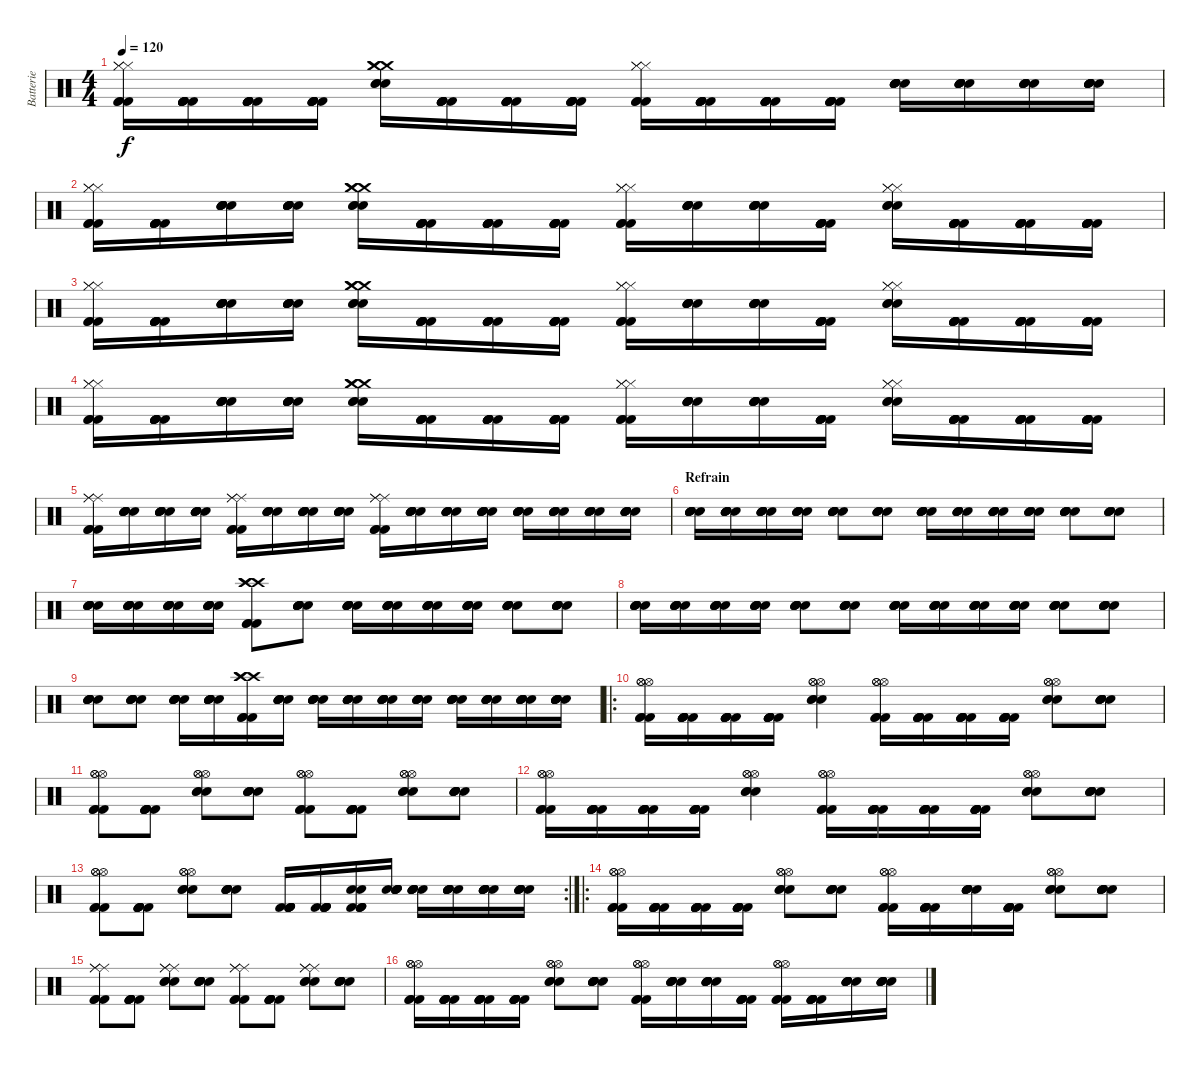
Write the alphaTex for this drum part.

\track ("Batterie" "Batterie") {instrument percussion}
\staff {score}
\articulation defaults
\ts (4 4)
\tempo 120
\clef neutral
\ks c
("Hi-Hat (closed)" "Hi-Hat (closed)" "Hi-Hat (closed)" "Kick (hit) 2" "Kick (hit) 2" "Kick (hit) 2").16{dy f} ("Kick (hit) 2" "Kick (hit) 2" "Kick (hit) 2" "Kick (hit) 2" "Kick (hit) 2" "Kick (hit) 2").16 ("Kick (hit) 2" "Kick (hit) 2" "Kick (hit) 2" "Kick (hit) 2" "Kick (hit) 2" "Kick (hit) 2").16 ("Kick (hit) 2" "Kick (hit) 2" "Kick (hit) 2" "Kick (hit) 2" "Kick (hit) 2" "Kick (hit) 2").16 ("Crash medium (hit)" "Crash medium (hit)" "Crash medium (hit)" "Snare (hit) 2" "Snare (hit) 2" "Snare (hit) 2").16 ("Kick (hit) 2" "Kick (hit) 2" "Kick (hit) 2" "Kick (hit) 2" "Kick (hit) 2" "Kick (hit) 2").16 ("Kick (hit) 2" "Kick (hit) 2" "Kick (hit) 2" "Kick (hit) 2" "Kick (hit) 2" "Kick (hit) 2").16 ("Kick (hit) 2" "Kick (hit) 2" "Kick (hit) 2" "Kick (hit) 2" "Kick (hit) 2" "Kick (hit) 2").16 ("Kick (hit) 2" "Hi-Hat (closed)" "Hi-Hat (closed)" "Hi-Hat (closed)" "Kick (hit) 2" "Kick (hit) 2").16 ("Kick (hit) 2" "Kick (hit) 2" "Kick (hit) 2" "Kick (hit) 2" "Kick (hit) 2" "Kick (hit) 2").16 ("Kick (hit) 2" "Kick (hit) 2" "Kick (hit) 2" "Kick (hit) 2" "Kick (hit) 2" "Kick (hit) 2").16 ("Kick (hit) 2" "Kick (hit) 2" "Kick (hit) 2" "Kick (hit) 2" "Kick (hit) 2" "Kick (hit) 2").16 ("Snare (hit) 2" "Snare (hit) 2" "Snare (hit) 2" "Snare (hit) 2" "Snare (hit) 2" "Snare (hit) 2").16 ("Snare (hit) 2" "Snare (hit) 2" "Snare (hit) 2" "Snare (hit) 2" "Snare (hit) 2" "Snare (hit) 2").16 ("Snare (hit) 2" "Snare (hit) 2" "Snare (hit) 2" "Snare (hit) 2" "Snare (hit) 2" "Snare (hit) 2").16 ("Snare (hit) 2" "Snare (hit) 2" "Snare (hit) 2" "Snare (hit) 2" "Snare (hit) 2" "Snare (hit) 2").16 |
("Hi-Hat (closed)" "Hi-Hat (closed)" "Hi-Hat (closed)" "Kick (hit) 2" "Kick (hit) 2" "Kick (hit) 2").16 ("Kick (hit) 2" "Kick (hit) 2" "Kick (hit) 2" "Kick (hit) 2" "Kick (hit) 2" "Kick (hit) 2").16 ("Snare (hit) 2" "Snare (hit) 2" "Snare (hit) 2" "Snare (hit) 2" "Snare (hit) 2" "Snare (hit) 2").16 ("Snare (hit) 2" "Snare (hit) 2" "Snare (hit) 2" "Snare (hit) 2" "Snare (hit) 2" "Snare (hit) 2").16 ("Crash medium (hit)" "Crash medium (hit)" "Crash medium (hit)" "Snare (hit) 2" "Snare (hit) 2" "Snare (hit) 2").16 ("Kick (hit) 2" "Kick (hit) 2" "Kick (hit) 2" "Kick (hit) 2" "Kick (hit) 2" "Kick (hit) 2").16 ("Kick (hit) 2" "Kick (hit) 2" "Kick (hit) 2" "Kick (hit) 2" "Kick (hit) 2" "Kick (hit) 2").16 ("Kick (hit) 2" "Kick (hit) 2" "Kick (hit) 2" "Kick (hit) 2" "Kick (hit) 2" "Kick (hit) 2").16 ("Kick (hit) 2" "Hi-Hat (closed)" "Hi-Hat (closed)" "Hi-Hat (closed)" "Kick (hit) 2" "Kick (hit) 2").16 ("Snare (hit) 2" "Snare (hit) 2" "Snare (hit) 2" "Snare (hit) 2" "Snare (hit) 2" "Snare (hit) 2").16 ("Snare (hit) 2" "Snare (hit) 2" "Snare (hit) 2" "Snare (hit) 2" "Snare (hit) 2" "Snare (hit) 2").16 ("Kick (hit) 2" "Kick (hit) 2" "Kick (hit) 2" "Kick (hit) 2" "Kick (hit) 2" "Kick (hit) 2").16 ("Snare (hit) 2" "Snare (hit) 2" "Snare (hit) 2" "Hi-Hat (closed)" "Hi-Hat (closed)" "Hi-Hat (closed)").16 ("Kick (hit) 2" "Kick (hit) 2" "Kick (hit) 2" "Kick (hit) 2" "Kick (hit) 2" "Kick (hit) 2").16 ("Kick (hit) 2" "Kick (hit) 2" "Kick (hit) 2" "Kick (hit) 2" "Kick (hit) 2" "Kick (hit) 2").16 ("Kick (hit) 2" "Kick (hit) 2" "Kick (hit) 2" "Kick (hit) 2" "Kick (hit) 2" "Kick (hit) 2").16 |
("Hi-Hat (closed)" "Hi-Hat (closed)" "Hi-Hat (closed)" "Kick (hit) 2" "Kick (hit) 2" "Kick (hit) 2").16 ("Kick (hit) 2" "Kick (hit) 2" "Kick (hit) 2" "Kick (hit) 2" "Kick (hit) 2" "Kick (hit) 2").16 ("Snare (hit) 2" "Snare (hit) 2" "Snare (hit) 2" "Snare (hit) 2" "Snare (hit) 2" "Snare (hit) 2").16 ("Snare (hit) 2" "Snare (hit) 2" "Snare (hit) 2" "Snare (hit) 2" "Snare (hit) 2" "Snare (hit) 2").16 ("Crash medium (hit)" "Crash medium (hit)" "Crash medium (hit)" "Snare (hit) 2" "Snare (hit) 2" "Snare (hit) 2").16 ("Kick (hit) 2" "Kick (hit) 2" "Kick (hit) 2" "Kick (hit) 2" "Kick (hit) 2" "Kick (hit) 2").16 ("Kick (hit) 2" "Kick (hit) 2" "Kick (hit) 2" "Kick (hit) 2" "Kick (hit) 2" "Kick (hit) 2").16 ("Kick (hit) 2" "Kick (hit) 2" "Kick (hit) 2" "Kick (hit) 2" "Kick (hit) 2" "Kick (hit) 2").16 ("Kick (hit) 2" "Hi-Hat (closed)" "Hi-Hat (closed)" "Hi-Hat (closed)" "Kick (hit) 2" "Kick (hit) 2").16 ("Snare (hit) 2" "Snare (hit) 2" "Snare (hit) 2" "Snare (hit) 2" "Snare (hit) 2" "Snare (hit) 2").16 ("Snare (hit) 2" "Snare (hit) 2" "Snare (hit) 2" "Snare (hit) 2" "Snare (hit) 2" "Snare (hit) 2").16 ("Kick (hit) 2" "Kick (hit) 2" "Kick (hit) 2" "Kick (hit) 2" "Kick (hit) 2" "Kick (hit) 2").16 ("Snare (hit) 2" "Snare (hit) 2" "Snare (hit) 2" "Hi-Hat (closed)" "Hi-Hat (closed)" "Hi-Hat (closed)").16 ("Kick (hit) 2" "Kick (hit) 2" "Kick (hit) 2" "Kick (hit) 2" "Kick (hit) 2" "Kick (hit) 2").16 ("Kick (hit) 2" "Kick (hit) 2" "Kick (hit) 2" "Kick (hit) 2" "Kick (hit) 2" "Kick (hit) 2").16 ("Kick (hit) 2" "Kick (hit) 2" "Kick (hit) 2" "Kick (hit) 2" "Kick (hit) 2" "Kick (hit) 2").16 |
("Hi-Hat (closed)" "Hi-Hat (closed)" "Hi-Hat (closed)" "Kick (hit) 2" "Kick (hit) 2" "Kick (hit) 2").16 ("Kick (hit) 2" "Kick (hit) 2" "Kick (hit) 2" "Kick (hit) 2" "Kick (hit) 2" "Kick (hit) 2").16 ("Snare (hit) 2" "Snare (hit) 2" "Snare (hit) 2" "Snare (hit) 2" "Snare (hit) 2" "Snare (hit) 2").16 ("Snare (hit) 2" "Snare (hit) 2" "Snare (hit) 2" "Snare (hit) 2" "Snare (hit) 2" "Snare (hit) 2").16 ("Crash medium (hit)" "Crash medium (hit)" "Crash medium (hit)" "Snare (hit) 2" "Snare (hit) 2" "Snare (hit) 2").16 ("Kick (hit) 2" "Kick (hit) 2" "Kick (hit) 2" "Kick (hit) 2" "Kick (hit) 2" "Kick (hit) 2").16 ("Kick (hit) 2" "Kick (hit) 2" "Kick (hit) 2" "Kick (hit) 2" "Kick (hit) 2" "Kick (hit) 2").16 ("Kick (hit) 2" "Kick (hit) 2" "Kick (hit) 2" "Kick (hit) 2" "Kick (hit) 2" "Kick (hit) 2").16 ("Kick (hit) 2" "Hi-Hat (closed)" "Hi-Hat (closed)" "Hi-Hat (closed)" "Kick (hit) 2" "Kick (hit) 2").16 ("Snare (hit) 2" "Snare (hit) 2" "Snare (hit) 2" "Snare (hit) 2" "Snare (hit) 2" "Snare (hit) 2").16 ("Snare (hit) 2" "Snare (hit) 2" "Snare (hit) 2" "Snare (hit) 2" "Snare (hit) 2" "Snare (hit) 2").16 ("Kick (hit) 2" "Kick (hit) 2" "Kick (hit) 2" "Kick (hit) 2" "Kick (hit) 2" "Kick (hit) 2").16 ("Snare (hit) 2" "Snare (hit) 2" "Snare (hit) 2" "Hi-Hat (closed)" "Hi-Hat (closed)" "Hi-Hat (closed)").16 ("Kick (hit) 2" "Kick (hit) 2" "Kick (hit) 2" "Kick (hit) 2" "Kick (hit) 2" "Kick (hit) 2").16 ("Kick (hit) 2" "Kick (hit) 2" "Kick (hit) 2" "Kick (hit) 2" "Kick (hit) 2" "Kick (hit) 2").16 ("Kick (hit) 2" "Kick (hit) 2" "Kick (hit) 2" "Kick (hit) 2" "Kick (hit) 2" "Kick (hit) 2").16 |
("Kick (hit) 2" "Kick (hit) 2" "Ride (middle)" "Ride (middle)" "Ride (middle)" "Kick (hit) 2").16 ("Snare (hit) 2" "Snare (hit) 2" "Snare (hit) 2" "Snare (hit) 2" "Snare (hit) 2" "Snare (hit) 2").16 ("Snare (hit) 2" "Snare (hit) 2" "Snare (hit) 2" "Snare (hit) 2" "Snare (hit) 2" "Snare (hit) 2").16 ("Snare (hit) 2" "Snare (hit) 2" "Snare (hit) 2" "Snare (hit) 2" "Snare (hit) 2" "Snare (hit) 2").16 ("Ride (middle)" "Kick (hit) 2" "Kick (hit) 2" "Kick (hit) 2" "Ride (middle)" "Ride (middle)").16 ("Snare (hit) 2" "Snare (hit) 2" "Snare (hit) 2" "Snare (hit) 2" "Snare (hit) 2" "Snare (hit) 2").16 ("Snare (hit) 2" "Snare (hit) 2" "Snare (hit) 2" "Snare (hit) 2" "Snare (hit) 2" "Snare (hit) 2").16 ("Snare (hit) 2" "Snare (hit) 2" "Snare (hit) 2" "Snare (hit) 2" "Snare (hit) 2" "Snare (hit) 2").16 ("Kick (hit) 2" "Kick (hit) 2" "Kick (hit) 2" "Ride (middle)" "Ride (middle)" "Ride (middle)").16 ("Snare (hit) 2" "Snare (hit) 2" "Snare (hit) 2" "Snare (hit) 2" "Snare (hit) 2" "Snare (hit) 2").16 ("Snare (hit) 2" "Snare (hit) 2" "Snare (hit) 2" "Snare (hit) 2" "Snare (hit) 2" "Snare (hit) 2").16 ("Snare (hit) 2" "Snare (hit) 2" "Snare (hit) 2" "Snare (hit) 2" "Snare (hit) 2" "Snare (hit) 2").16 ("Snare (hit) 2" "Snare (hit) 2" "Snare (hit) 2" "Snare (hit) 2" "Snare (hit) 2" "Snare (hit) 2").16 ("Snare (hit) 2" "Snare (hit) 2" "Snare (hit) 2" "Snare (hit) 2" "Snare (hit) 2" "Snare (hit) 2").16 ("Snare (hit) 2" "Snare (hit) 2" "Snare (hit) 2" "Snare (hit) 2" "Snare (hit) 2" "Snare (hit) 2").16 ("Snare (hit) 2" "Snare (hit) 2" "Snare (hit) 2" "Snare (hit) 2" "Snare (hit) 2" "Snare (hit) 2").16 |
\section ("" "Refrain")
("Snare (hit) 2" "Snare (hit) 2" "Snare (hit) 2" "Snare (hit) 2" "Snare (hit) 2" "Snare (hit) 2").16 ("Snare (hit) 2" "Snare (hit) 2" "Snare (hit) 2" "Snare (hit) 2" "Snare (hit) 2" "Snare (hit) 2").16 ("Snare (hit) 2" "Snare (hit) 2" "Snare (hit) 2" "Snare (hit) 2" "Snare (hit) 2" "Snare (hit) 2").16 ("Snare (hit) 2" "Snare (hit) 2" "Snare (hit) 2" "Snare (hit) 2" "Snare (hit) 2" "Snare (hit) 2").16 ("Snare (hit) 2" "Snare (hit) 2" "Snare (hit) 2" "Snare (hit) 2" "Snare (hit) 2" "Snare (hit) 2").8 ("Snare (hit) 2" "Snare (hit) 2" "Snare (hit) 2" "Snare (hit) 2" "Snare (hit) 2" "Snare (hit) 2").8 ("Snare (hit) 2" "Snare (hit) 2" "Snare (hit) 2" "Snare (hit) 2" "Snare (hit) 2" "Snare (hit) 2").16 ("Snare (hit) 2" "Snare (hit) 2" "Snare (hit) 2" "Snare (hit) 2" "Snare (hit) 2" "Snare (hit) 2").16 ("Snare (hit) 2" "Snare (hit) 2" "Snare (hit) 2" "Snare (hit) 2" "Snare (hit) 2" "Snare (hit) 2").16 ("Snare (hit) 2" "Snare (hit) 2" "Snare (hit) 2" "Snare (hit) 2" "Snare (hit) 2" "Snare (hit) 2").16 ("Snare (hit) 2" "Snare (hit) 2" "Snare (hit) 2" "Snare (hit) 2" "Snare (hit) 2" "Snare (hit) 2").8 ("Snare (hit) 2" "Snare (hit) 2" "Snare (hit) 2" "Snare (hit) 2" "Snare (hit) 2" "Snare (hit) 2").8 |
("Snare (hit) 2" "Snare (hit) 2" "Snare (hit) 2" "Snare (hit) 2" "Snare (hit) 2" "Snare (hit) 2").16 ("Snare (hit) 2" "Snare (hit) 2" "Snare (hit) 2" "Snare (hit) 2" "Snare (hit) 2" "Snare (hit) 2").16 ("Snare (hit) 2" "Snare (hit) 2" "Snare (hit) 2" "Snare (hit) 2" "Snare (hit) 2" "Snare (hit) 2").16 ("Snare (hit) 2" "Snare (hit) 2" "Snare (hit) 2" "Snare (hit) 2" "Snare (hit) 2" "Snare (hit) 2").16 ("Kick (hit) 2" "Crash high (hit)" "Crash high (hit)" "Crash high (hit)" "Kick (hit) 2" "Kick (hit) 2").8 ("Snare (hit) 2" "Snare (hit) 2" "Snare (hit) 2" "Snare (hit) 2" "Snare (hit) 2" "Snare (hit) 2").8 ("Snare (hit) 2" "Snare (hit) 2" "Snare (hit) 2" "Snare (hit) 2" "Snare (hit) 2" "Snare (hit) 2").16 ("Snare (hit) 2" "Snare (hit) 2" "Snare (hit) 2" "Snare (hit) 2" "Snare (hit) 2" "Snare (hit) 2").16 ("Snare (hit) 2" "Snare (hit) 2" "Snare (hit) 2" "Snare (hit) 2" "Snare (hit) 2" "Snare (hit) 2").16 ("Snare (hit) 2" "Snare (hit) 2" "Snare (hit) 2" "Snare (hit) 2" "Snare (hit) 2" "Snare (hit) 2").16 ("Snare (hit) 2" "Snare (hit) 2" "Snare (hit) 2" "Snare (hit) 2" "Snare (hit) 2" "Snare (hit) 2").8 ("Snare (hit) 2" "Snare (hit) 2" "Snare (hit) 2" "Snare (hit) 2" "Snare (hit) 2" "Snare (hit) 2").8 |
("Snare (hit) 2" "Snare (hit) 2" "Snare (hit) 2" "Snare (hit) 2" "Snare (hit) 2" "Snare (hit) 2").16 ("Snare (hit) 2" "Snare (hit) 2" "Snare (hit) 2" "Snare (hit) 2" "Snare (hit) 2" "Snare (hit) 2").16 ("Snare (hit) 2" "Snare (hit) 2" "Snare (hit) 2" "Snare (hit) 2" "Snare (hit) 2" "Snare (hit) 2").16 ("Snare (hit) 2" "Snare (hit) 2" "Snare (hit) 2" "Snare (hit) 2" "Snare (hit) 2" "Snare (hit) 2").16 ("Snare (hit) 2" "Snare (hit) 2" "Snare (hit) 2" "Snare (hit) 2" "Snare (hit) 2" "Snare (hit) 2").8 ("Snare (hit) 2" "Snare (hit) 2" "Snare (hit) 2" "Snare (hit) 2" "Snare (hit) 2" "Snare (hit) 2").8 ("Snare (hit) 2" "Snare (hit) 2" "Snare (hit) 2" "Snare (hit) 2" "Snare (hit) 2" "Snare (hit) 2").16 ("Snare (hit) 2" "Snare (hit) 2" "Snare (hit) 2" "Snare (hit) 2" "Snare (hit) 2" "Snare (hit) 2").16 ("Snare (hit) 2" "Snare (hit) 2" "Snare (hit) 2" "Snare (hit) 2" "Snare (hit) 2" "Snare (hit) 2").16 ("Snare (hit) 2" "Snare (hit) 2" "Snare (hit) 2" "Snare (hit) 2" "Snare (hit) 2" "Snare (hit) 2").16 ("Snare (hit) 2" "Snare (hit) 2" "Snare (hit) 2" "Snare (hit) 2" "Snare (hit) 2" "Snare (hit) 2").8 ("Snare (hit) 2" "Snare (hit) 2" "Snare (hit) 2" "Snare (hit) 2" "Snare (hit) 2" "Snare (hit) 2").8 |
("Snare (hit) 2" "Snare (hit) 2" "Snare (hit) 2" "Snare (hit) 2" "Snare (hit) 2" "Snare (hit) 2").8 ("Snare (hit) 2" "Snare (hit) 2" "Snare (hit) 2" "Snare (hit) 2" "Snare (hit) 2" "Snare (hit) 2").8 ("Snare (hit) 2" "Snare (hit) 2" "Snare (hit) 2" "Snare (hit) 2" "Snare (hit) 2" "Snare (hit) 2").16 ("Snare (hit) 2" "Snare (hit) 2" "Snare (hit) 2" "Snare (hit) 2" "Snare (hit) 2" "Snare (hit) 2").16 ("Kick (hit) 2" "Crash high (hit)" "Crash high (hit)" "Crash high (hit)" "Kick (hit) 2" "Kick (hit) 2").16 ("Snare (hit) 2" "Snare (hit) 2" "Snare (hit) 2" "Snare (hit) 2" "Snare (hit) 2" "Snare (hit) 2").16 ("Snare (hit) 2" "Snare (hit) 2" "Snare (hit) 2" "Snare (hit) 2" "Snare (hit) 2" "Snare (hit) 2").16 ("Snare (hit) 2" "Snare (hit) 2" "Snare (hit) 2" "Snare (hit) 2" "Snare (hit) 2" "Snare (hit) 2").16 ("Snare (hit) 2" "Snare (hit) 2" "Snare (hit) 2" "Snare (hit) 2" "Snare (hit) 2" "Snare (hit) 2").16 ("Snare (hit) 2" "Snare (hit) 2" "Snare (hit) 2" "Snare (hit) 2" "Snare (hit) 2" "Snare (hit) 2").16 ("Snare (hit) 2" "Snare (hit) 2" "Snare (hit) 2" "Snare (hit) 2" "Snare (hit) 2" "Snare (hit) 2").16 ("Snare (hit) 2" "Snare (hit) 2" "Snare (hit) 2" "Snare (hit) 2" "Snare (hit) 2" "Snare (hit) 2").16 ("Snare (hit) 2" "Snare (hit) 2" "Snare (hit) 2" "Snare (hit) 2" "Snare (hit) 2" "Snare (hit) 2").16 ("Snare (hit) 2" "Snare (hit) 2" "Snare (hit) 2" "Snare (hit) 2" "Snare (hit) 2" "Snare (hit) 2").16 |
\ro
("Hi-Hat (open)" "Hi-Hat (open)" "Hi-Hat (open)" "Kick (hit) 2" "Kick (hit) 2" "Kick (hit) 2").16 ("Kick (hit) 2" "Kick (hit) 2" "Kick (hit) 2" "Kick (hit) 2" "Kick (hit) 2" "Kick (hit) 2").16 ("Kick (hit) 2" "Kick (hit) 2" "Kick (hit) 2" "Kick (hit) 2" "Kick (hit) 2" "Kick (hit) 2").16 ("Kick (hit) 2" "Kick (hit) 2" "Kick (hit) 2" "Kick (hit) 2" "Kick (hit) 2" "Kick (hit) 2").16 ("Hi-Hat (open)" "Hi-Hat (open)" "Hi-Hat (open)" "Snare (hit) 2" "Snare (hit) 2" "Snare (hit) 2").4 ("Hi-Hat (open)" "Hi-Hat (open)" "Hi-Hat (open)" "Kick (hit) 2" "Kick (hit) 2" "Kick (hit) 2").16 ("Kick (hit) 2" "Kick (hit) 2" "Kick (hit) 2" "Kick (hit) 2" "Kick (hit) 2" "Kick (hit) 2").16 ("Kick (hit) 2" "Kick (hit) 2" "Kick (hit) 2" "Kick (hit) 2" "Kick (hit) 2" "Kick (hit) 2").16 ("Kick (hit) 2" "Kick (hit) 2" "Kick (hit) 2" "Kick (hit) 2" "Kick (hit) 2" "Kick (hit) 2").16 ("Hi-Hat (open)" "Hi-Hat (open)" "Snare (hit) 2" "Snare (hit) 2" "Snare (hit) 2" "Hi-Hat (open)").8 ("Snare (hit) 2" "Snare (hit) 2" "Snare (hit) 2" "Snare (hit) 2" "Snare (hit) 2" "Snare (hit) 2").8 |
("Hi-Hat (open)" "Hi-Hat (open)" "Hi-Hat (open)" "Kick (hit) 2" "Kick (hit) 2" "Kick (hit) 2").8 ("Kick (hit) 2" "Kick (hit) 2" "Kick (hit) 2" "Kick (hit) 2" "Kick (hit) 2" "Kick (hit) 2").8 ("Snare (hit) 2" "Snare (hit) 2" "Snare (hit) 2" "Hi-Hat (open)" "Hi-Hat (open)" "Hi-Hat (open)").8 ("Snare (hit) 2" "Snare (hit) 2" "Snare (hit) 2" "Snare (hit) 2" "Snare (hit) 2" "Snare (hit) 2").8 ("Kick (hit) 2" "Kick (hit) 2" "Hi-Hat (open)" "Hi-Hat (open)" "Hi-Hat (open)" "Kick (hit) 2").8 ("Kick (hit) 2" "Kick (hit) 2" "Kick (hit) 2" "Kick (hit) 2" "Kick (hit) 2" "Kick (hit) 2").8 ("Snare (hit) 2" "Hi-Hat (open)" "Hi-Hat (open)" "Hi-Hat (open)" "Snare (hit) 2" "Snare (hit) 2").8 ("Snare (hit) 2" "Snare (hit) 2" "Snare (hit) 2" "Snare (hit) 2" "Snare (hit) 2" "Snare (hit) 2").8 |
("Hi-Hat (open)" "Hi-Hat (open)" "Hi-Hat (open)" "Kick (hit) 2" "Kick (hit) 2" "Kick (hit) 2").16 ("Kick (hit) 2" "Kick (hit) 2" "Kick (hit) 2" "Kick (hit) 2" "Kick (hit) 2" "Kick (hit) 2").16 ("Kick (hit) 2" "Kick (hit) 2" "Kick (hit) 2" "Kick (hit) 2" "Kick (hit) 2" "Kick (hit) 2").16 ("Kick (hit) 2" "Kick (hit) 2" "Kick (hit) 2" "Kick (hit) 2" "Kick (hit) 2" "Kick (hit) 2").16 ("Hi-Hat (open)" "Hi-Hat (open)" "Hi-Hat (open)" "Snare (hit) 2" "Snare (hit) 2" "Snare (hit) 2").4 ("Hi-Hat (open)" "Hi-Hat (open)" "Hi-Hat (open)" "Kick (hit) 2" "Kick (hit) 2" "Kick (hit) 2").16 ("Kick (hit) 2" "Kick (hit) 2" "Kick (hit) 2" "Kick (hit) 2" "Kick (hit) 2" "Kick (hit) 2").16 ("Kick (hit) 2" "Kick (hit) 2" "Kick (hit) 2" "Kick (hit) 2" "Kick (hit) 2" "Kick (hit) 2").16 ("Kick (hit) 2" "Kick (hit) 2" "Kick (hit) 2" "Kick (hit) 2" "Kick (hit) 2" "Kick (hit) 2").16 ("Hi-Hat (open)" "Hi-Hat (open)" "Snare (hit) 2" "Snare (hit) 2" "Snare (hit) 2" "Hi-Hat (open)").8 ("Snare (hit) 2" "Snare (hit) 2" "Snare (hit) 2" "Snare (hit) 2" "Snare (hit) 2" "Snare (hit) 2").8 |
\rc 2
("Hi-Hat (open)" "Hi-Hat (open)" "Hi-Hat (open)" "Kick (hit) 2" "Kick (hit) 2" "Kick (hit) 2").8 ("Kick (hit) 2" "Kick (hit) 2" "Kick (hit) 2" "Kick (hit) 2" "Kick (hit) 2" "Kick (hit) 2").8 ("Snare (hit) 2" "Snare (hit) 2" "Snare (hit) 2" "Hi-Hat (open)" "Hi-Hat (open)" "Hi-Hat (open)").8 ("Snare (hit) 2" "Snare (hit) 2" "Snare (hit) 2" "Snare (hit) 2" "Snare (hit) 2" "Snare (hit) 2").8 ("Kick (hit) 2" "Kick (hit) 2" "Kick (hit) 2" "Kick (hit) 2" "Kick (hit) 2" "Kick (hit) 2").16 ("Kick (hit) 2" "Kick (hit) 2" "Kick (hit) 2" "Kick (hit) 2" "Kick (hit) 2" "Kick (hit) 2").16 ("Snare (hit) 2" "Kick (hit) 2" "Kick (hit) 2" "Kick (hit) 2" "Snare (hit) 2" "Kick (hit) 2").16 ("Snare (hit) 2" "Snare (hit) 2" "Snare (hit) 2" "Snare (hit) 2" "Snare (hit) 2" "Snare (hit) 2").16 ("Snare (hit) 2" "Snare (hit) 2" "Snare (hit) 2" "Snare (hit) 2" "Snare (hit) 2" "Snare (hit) 2").16 ("Snare (hit) 2" "Snare (hit) 2" "Snare (hit) 2" "Snare (hit) 2" "Snare (hit) 2" "Snare (hit) 2").16 ("Snare (hit) 2" "Snare (hit) 2" "Snare (hit) 2" "Snare (hit) 2" "Snare (hit) 2" "Snare (hit) 2").16 ("Snare (hit) 2" "Snare (hit) 2" "Snare (hit) 2" "Snare (hit) 2" "Snare (hit) 2" "Snare (hit) 2").16 |
\ro
("Hi-Hat (open)" "Hi-Hat (open)" "Hi-Hat (open)" "Kick (hit) 2" "Kick (hit) 2" "Kick (hit) 2").16 ("Kick (hit) 2" "Kick (hit) 2" "Kick (hit) 2" "Kick (hit) 2" "Kick (hit) 2" "Kick (hit) 2").16 ("Kick (hit) 2" "Kick (hit) 2" "Kick (hit) 2" "Kick (hit) 2" "Kick (hit) 2" "Kick (hit) 2").16 ("Kick (hit) 2" "Kick (hit) 2" "Kick (hit) 2" "Kick (hit) 2" "Kick (hit) 2" "Kick (hit) 2").16 ("Hi-Hat (open)" "Hi-Hat (open)" "Hi-Hat (open)" "Snare (hit) 2" "Snare (hit) 2" "Snare (hit) 2").8 ("Snare (hit) 2" "Snare (hit) 2" "Snare (hit) 2" "Snare (hit) 2" "Snare (hit) 2" "Snare (hit) 2").8 ("Hi-Hat (open)" "Hi-Hat (open)" "Hi-Hat (open)" "Kick (hit) 2" "Kick (hit) 2" "Kick (hit) 2").16 ("Kick (hit) 2" "Kick (hit) 2" "Kick (hit) 2" "Kick (hit) 2" "Kick (hit) 2" "Kick (hit) 2").16 ("Snare (hit) 2" "Snare (hit) 2" "Snare (hit) 2" "Snare (hit) 2" "Snare (hit) 2" "Snare (hit) 2").16 ("Kick (hit) 2" "Kick (hit) 2" "Kick (hit) 2" "Kick (hit) 2" "Kick (hit) 2" "Kick (hit) 2").16 ("Hi-Hat (open)" "Hi-Hat (open)" "Hi-Hat (open)" "Snare (hit) 2" "Snare (hit) 2" "Snare (hit) 2").8 ("Snare (hit) 2" "Snare (hit) 2" "Snare (hit) 2" "Snare (hit) 2" "Snare (hit) 2" "Snare (hit) 2").8 |
("Ride (middle)" "Ride (middle)" "Ride (middle)" "Kick (hit) 2" "Kick (hit) 2" "Kick (hit) 2").8 ("Kick (hit) 2" "Kick (hit) 2" "Kick (hit) 2" "Kick (hit) 2" "Kick (hit) 2" "Kick (hit) 2").8 ("Ride (middle)" "Ride (middle)" "Ride (middle)" "Snare (hit) 2" "Snare (hit) 2" "Snare (hit) 2").8 ("Snare (hit) 2" "Snare (hit) 2" "Snare (hit) 2" "Snare (hit) 2" "Snare (hit) 2" "Snare (hit) 2").8 ("Kick (hit) 2" "Kick (hit) 2" "Ride (middle)" "Ride (middle)" "Ride (middle)" "Kick (hit) 2").8 ("Kick (hit) 2" "Kick (hit) 2" "Kick (hit) 2" "Kick (hit) 2" "Kick (hit) 2" "Kick (hit) 2").8 ("Ride (middle)" "Snare (hit) 2" "Snare (hit) 2" "Snare (hit) 2" "Ride (middle)" "Ride (middle)").8 ("Snare (hit) 2" "Snare (hit) 2" "Snare (hit) 2" "Snare (hit) 2" "Snare (hit) 2" "Snare (hit) 2").8 |
("Hi-Hat (open)" "Hi-Hat (open)" "Hi-Hat (open)" "Kick (hit) 2" "Kick (hit) 2" "Kick (hit) 2").16 ("Kick (hit) 2" "Kick (hit) 2" "Kick (hit) 2" "Kick (hit) 2" "Kick (hit) 2" "Kick (hit) 2").16 ("Kick (hit) 2" "Kick (hit) 2" "Kick (hit) 2" "Kick (hit) 2" "Kick (hit) 2" "Kick (hit) 2").16 ("Kick (hit) 2" "Kick (hit) 2" "Kick (hit) 2" "Kick (hit) 2" "Kick (hit) 2" "Kick (hit) 2").16 ("Hi-Hat (open)" "Hi-Hat (open)" "Hi-Hat (open)" "Snare (hit) 2" "Snare (hit) 2" "Snare (hit) 2").8 ("Snare (hit) 2" "Snare (hit) 2" "Snare (hit) 2" "Snare (hit) 2" "Snare (hit) 2" "Snare (hit) 2").8 ("Hi-Hat (open)" "Hi-Hat (open)" "Hi-Hat (open)" "Kick (hit) 2" "Kick (hit) 2" "Kick (hit) 2").16 ("Snare (hit) 2" "Snare (hit) 2" "Snare (hit) 2" "Snare (hit) 2" "Snare (hit) 2" "Snare (hit) 2").16 ("Snare (hit) 2" "Snare (hit) 2" "Snare (hit) 2" "Snare (hit) 2" "Snare (hit) 2" "Snare (hit) 2").16 ("Kick (hit) 2" "Kick (hit) 2" "Kick (hit) 2" "Kick (hit) 2" "Kick (hit) 2" "Kick (hit) 2").16 ("Hi-Hat (open)" "Hi-Hat (open)" "Hi-Hat (open)" "Kick (hit) 2" "Kick (hit) 2" "Kick (hit) 2").16 ("Kick (hit) 2" "Kick (hit) 2" "Kick (hit) 2" "Kick (hit) 2" "Kick (hit) 2" "Kick (hit) 2").16 ("Snare (hit) 2" "Snare (hit) 2" "Snare (hit) 2" "Snare (hit) 2" "Snare (hit) 2" "Snare (hit) 2").16 ("Snare (hit) 2" "Snare (hit) 2" "Snare (hit) 2" "Snare (hit) 2" "Snare (hit) 2" "Snare (hit) 2").16
